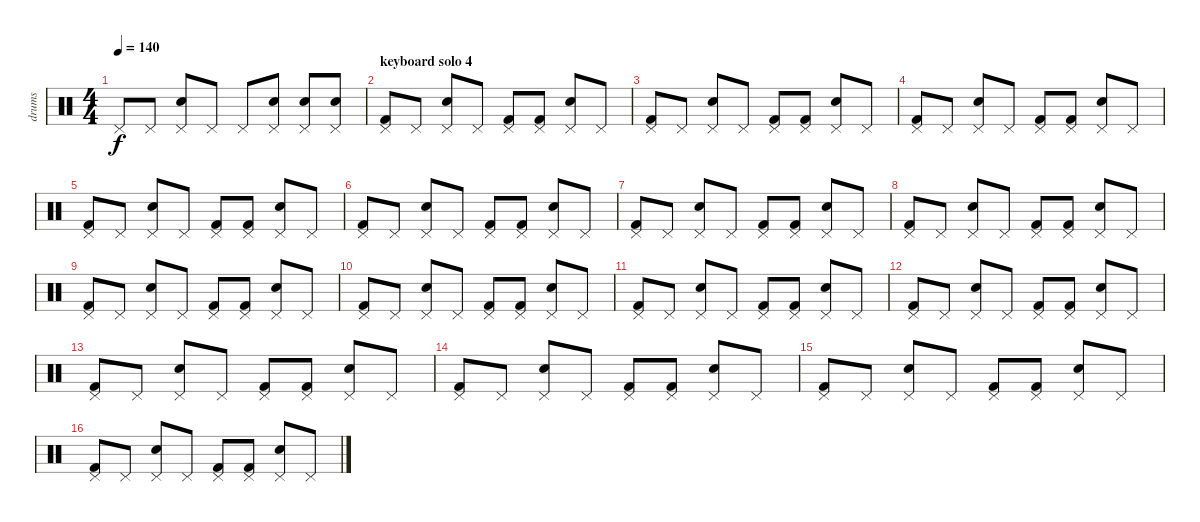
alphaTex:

\track ("drums" "drums") {instrument percussion}
\staff {score}
\articulation defaults
\ts (4 4)
\tempo 140
\clef neutral
\ks c "Pedal Hi-Hat (hit)".8{dy f} "Pedal Hi-Hat (hit)".8
("Snare (hit) 2" "Pedal Hi-Hat (hit)").8 "Pedal Hi-Hat (hit)".8 "Pedal Hi-Hat (hit)".8 ("Snare (hit) 2" "Pedal Hi-Hat (hit)").8 ("Snare (hit) 2" "Pedal Hi-Hat (hit)").8 ("Snare (hit) 2" "Pedal Hi-Hat (hit)").8 |
\section ("" "keyboard solo 4")
("Kick (hit) 2" "Pedal Hi-Hat (hit)").8 "Pedal Hi-Hat (hit)".8 ("Snare (hit) 2" "Pedal Hi-Hat (hit)").8 "Pedal Hi-Hat (hit)".8 ("Kick (hit) 2" "Pedal Hi-Hat (hit)").8 ("Kick (hit) 2" "Pedal Hi-Hat (hit)").8 ("Snare (hit) 2" "Pedal Hi-Hat (hit)").8 "Pedal Hi-Hat (hit)".8 |
("Kick (hit) 2" "Pedal Hi-Hat (hit)").8 "Pedal Hi-Hat (hit)".8 ("Snare (hit) 2" "Pedal Hi-Hat (hit)").8 "Pedal Hi-Hat (hit)".8 ("Kick (hit) 2" "Pedal Hi-Hat (hit)").8 ("Kick (hit) 2" "Pedal Hi-Hat (hit)").8 ("Snare (hit) 2" "Pedal Hi-Hat (hit)").8 "Pedal Hi-Hat (hit)".8 |
("Kick (hit) 2" "Pedal Hi-Hat (hit)").8 "Pedal Hi-Hat (hit)".8 ("Snare (hit) 2" "Pedal Hi-Hat (hit)").8 "Pedal Hi-Hat (hit)".8 ("Kick (hit) 2" "Pedal Hi-Hat (hit)").8 ("Kick (hit) 2" "Pedal Hi-Hat (hit)").8 ("Snare (hit) 2" "Pedal Hi-Hat (hit)").8 "Pedal Hi-Hat (hit)".8 |
("Kick (hit) 2" "Pedal Hi-Hat (hit)").8 "Pedal Hi-Hat (hit)".8 ("Snare (hit) 2" "Pedal Hi-Hat (hit)").8 "Pedal Hi-Hat (hit)".8 ("Kick (hit) 2" "Pedal Hi-Hat (hit)").8 ("Kick (hit) 2" "Pedal Hi-Hat (hit)").8 ("Snare (hit) 2" "Pedal Hi-Hat (hit)").8 "Pedal Hi-Hat (hit)".8 |
("Kick (hit) 2" "Pedal Hi-Hat (hit)").8 "Pedal Hi-Hat (hit)".8 ("Snare (hit) 2" "Pedal Hi-Hat (hit)").8 "Pedal Hi-Hat (hit)".8 ("Kick (hit) 2" "Pedal Hi-Hat (hit)").8 ("Kick (hit) 2" "Pedal Hi-Hat (hit)").8 ("Snare (hit) 2" "Pedal Hi-Hat (hit)").8 "Pedal Hi-Hat (hit)".8 |
("Kick (hit) 2" "Pedal Hi-Hat (hit)").8 "Pedal Hi-Hat (hit)".8 ("Snare (hit) 2" "Pedal Hi-Hat (hit)").8 "Pedal Hi-Hat (hit)".8 ("Kick (hit) 2" "Pedal Hi-Hat (hit)").8 ("Kick (hit) 2" "Pedal Hi-Hat (hit)").8 ("Snare (hit) 2" "Pedal Hi-Hat (hit)").8 "Pedal Hi-Hat (hit)".8 |
("Kick (hit) 2" "Pedal Hi-Hat (hit)").8 "Pedal Hi-Hat (hit)".8 ("Snare (hit) 2" "Pedal Hi-Hat (hit)").8 "Pedal Hi-Hat (hit)".8 ("Kick (hit) 2" "Pedal Hi-Hat (hit)").8 ("Kick (hit) 2" "Pedal Hi-Hat (hit)").8 ("Snare (hit) 2" "Pedal Hi-Hat (hit)").8 "Pedal Hi-Hat (hit)".8 |
("Kick (hit) 2" "Pedal Hi-Hat (hit)").8 "Pedal Hi-Hat (hit)".8 ("Snare (hit) 2" "Pedal Hi-Hat (hit)").8 "Pedal Hi-Hat (hit)".8 ("Kick (hit) 2" "Pedal Hi-Hat (hit)").8 ("Kick (hit) 2" "Pedal Hi-Hat (hit)").8 ("Snare (hit) 2" "Pedal Hi-Hat (hit)").8 "Pedal Hi-Hat (hit)".8 |
("Kick (hit) 2" "Pedal Hi-Hat (hit)").8 "Pedal Hi-Hat (hit)".8 ("Snare (hit) 2" "Pedal Hi-Hat (hit)").8 "Pedal Hi-Hat (hit)".8 ("Kick (hit) 2" "Pedal Hi-Hat (hit)").8 ("Kick (hit) 2" "Pedal Hi-Hat (hit)").8 ("Snare (hit) 2" "Pedal Hi-Hat (hit)").8 "Pedal Hi-Hat (hit)".8 |
("Kick (hit) 2" "Pedal Hi-Hat (hit)").8 "Pedal Hi-Hat (hit)".8 ("Snare (hit) 2" "Pedal Hi-Hat (hit)").8 "Pedal Hi-Hat (hit)".8 ("Kick (hit) 2" "Pedal Hi-Hat (hit)").8 ("Kick (hit) 2" "Pedal Hi-Hat (hit)").8 ("Snare (hit) 2" "Pedal Hi-Hat (hit)").8 "Pedal Hi-Hat (hit)".8 |
("Kick (hit) 2" "Pedal Hi-Hat (hit)").8 "Pedal Hi-Hat (hit)".8 ("Snare (hit) 2" "Pedal Hi-Hat (hit)").8 "Pedal Hi-Hat (hit)".8 ("Kick (hit) 2" "Pedal Hi-Hat (hit)").8 ("Kick (hit) 2" "Pedal Hi-Hat (hit)").8 ("Snare (hit) 2" "Pedal Hi-Hat (hit)").8 "Pedal Hi-Hat (hit)".8 |
("Kick (hit) 2" "Pedal Hi-Hat (hit)").8 "Pedal Hi-Hat (hit)".8 ("Snare (hit) 2" "Pedal Hi-Hat (hit)").8 "Pedal Hi-Hat (hit)".8 ("Kick (hit) 2" "Pedal Hi-Hat (hit)").8 ("Kick (hit) 2" "Pedal Hi-Hat (hit)").8 ("Snare (hit) 2" "Pedal Hi-Hat (hit)").8 "Pedal Hi-Hat (hit)".8 |
("Kick (hit) 2" "Pedal Hi-Hat (hit)").8 "Pedal Hi-Hat (hit)".8 ("Snare (hit) 2" "Pedal Hi-Hat (hit)").8 "Pedal Hi-Hat (hit)".8 ("Kick (hit) 2" "Pedal Hi-Hat (hit)").8 ("Kick (hit) 2" "Pedal Hi-Hat (hit)").8 ("Snare (hit) 2" "Pedal Hi-Hat (hit)").8 "Pedal Hi-Hat (hit)".8 |
("Kick (hit) 2" "Pedal Hi-Hat (hit)").8 "Pedal Hi-Hat (hit)".8 ("Snare (hit) 2" "Pedal Hi-Hat (hit)").8 "Pedal Hi-Hat (hit)".8 ("Kick (hit) 2" "Pedal Hi-Hat (hit)").8 ("Kick (hit) 2" "Pedal Hi-Hat (hit)").8 ("Snare (hit) 2" "Pedal Hi-Hat (hit)").8 "Pedal Hi-Hat (hit)".8 |
("Kick (hit) 2" "Pedal Hi-Hat (hit)").8 "Pedal Hi-Hat (hit)".8 ("Snare (hit) 2" "Pedal Hi-Hat (hit)").8 "Pedal Hi-Hat (hit)".8 ("Kick (hit) 2" "Pedal Hi-Hat (hit)").8 ("Kick (hit) 2" "Pedal Hi-Hat (hit)").8 ("Snare (hit) 2" "Pedal Hi-Hat (hit)").8 "Pedal Hi-Hat (hit)".8
